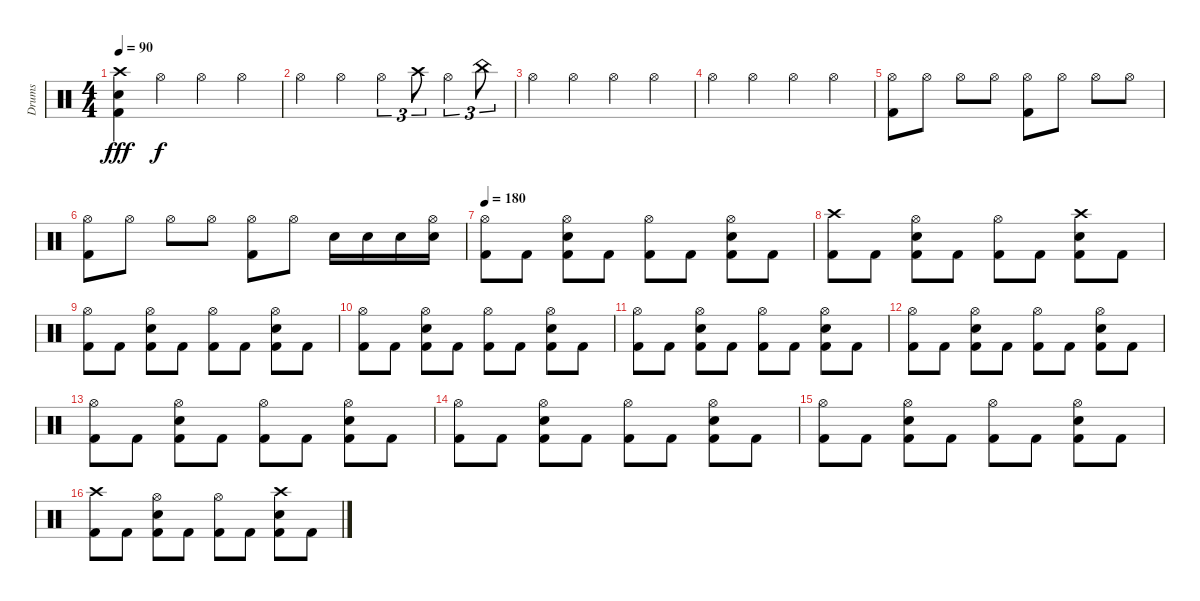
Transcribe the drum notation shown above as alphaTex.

\track ("Drums" "Drums") {instrument percussion}
\staff {score}
\articulation defaults
\ts (4 4)
\tempo 90
\clef neutral
\ks c
("Crash high (hit)" "Snare (hit) 2" "Kick (hit) 2").4{dy fff} "Hi-Hat (open)".4{dy f} "Hi-Hat (open)".4 "Hi-Hat (open)".4 |
"Hi-Hat (open)".4 "Hi-Hat (open)".4 "Hi-Hat (open)".4{tu (3 2)} "Crash high (hit)".8{tu (3 2)} "Hi-Hat (open)".4{tu (3 2)} "China (hit)".8{tu (3 2)} |
"Hi-Hat (open)".4 "Hi-Hat (open)".4 "Hi-Hat (open)".4 "Hi-Hat (open)".4 |
"Hi-Hat (open)".4 "Hi-Hat (open)".4 "Hi-Hat (open)".4 "Hi-Hat (open)".4 |
("Hi-Hat (open)" "Kick (hit) 2").8 "Hi-Hat (open)".8 "Hi-Hat (open)".8 "Hi-Hat (open)".8 ("Hi-Hat (open)" "Kick (hit) 2").8 "Hi-Hat (open)".8 "Hi-Hat (open)".8 "Hi-Hat (open)".8 |
("Hi-Hat (open)" "Kick (hit) 2").8 "Hi-Hat (open)".8 "Hi-Hat (open)".8 "Hi-Hat (open)".8 ("Hi-Hat (open)" "Kick (hit) 2").8 "Hi-Hat (open)".8 "Snare (hit) 2".16 "Snare (hit) 2".16 "Snare (hit) 2".16 ("Hi-Hat (open)" "Snare (hit) 2").16 |
\tempo 180
("Hi-Hat (open)" "Kick (hit) 2").8 "Kick (hit) 2".8 ("Hi-Hat (open)" "Snare (hit) 2" "Kick (hit) 2").8 "Kick (hit) 2".8 ("Hi-Hat (open)" "Kick (hit) 2").8 "Kick (hit) 2".8 ("Hi-Hat (open)" "Snare (hit) 2" "Kick (hit) 2").8 "Kick (hit) 2".8 |
("Crash high (hit)" "Kick (hit) 2").8 "Kick (hit) 2".8 ("Hi-Hat (open)" "Snare (hit) 2" "Kick (hit) 2").8 "Kick (hit) 2".8 ("Hi-Hat (open)" "Kick (hit) 2").8 "Kick (hit) 2".8 ("Crash high (hit)" "Snare (hit) 2" "Kick (hit) 2").8 "Kick (hit) 2".8 |
("Hi-Hat (open)" "Kick (hit) 2").8 "Kick (hit) 2".8 ("Hi-Hat (open)" "Snare (hit) 2" "Kick (hit) 2").8 "Kick (hit) 2".8 ("Hi-Hat (open)" "Kick (hit) 2").8 "Kick (hit) 2".8 ("Hi-Hat (open)" "Snare (hit) 2" "Kick (hit) 2").8 "Kick (hit) 2".8 |
("Hi-Hat (open)" "Kick (hit) 2").8 "Kick (hit) 2".8 ("Hi-Hat (open)" "Snare (hit) 2" "Kick (hit) 2").8 "Kick (hit) 2".8 ("Hi-Hat (open)" "Kick (hit) 2").8 "Kick (hit) 2".8 ("Hi-Hat (open)" "Snare (hit) 2" "Kick (hit) 2").8 "Kick (hit) 2".8 |
("Hi-Hat (open)" "Kick (hit) 2").8 "Kick (hit) 2".8 ("Hi-Hat (open)" "Snare (hit) 2" "Kick (hit) 2").8 "Kick (hit) 2".8 ("Hi-Hat (open)" "Kick (hit) 2").8 "Kick (hit) 2".8 ("Hi-Hat (open)" "Snare (hit) 2" "Kick (hit) 2").8 "Kick (hit) 2".8 |
("Hi-Hat (open)" "Kick (hit) 2").8 "Kick (hit) 2".8 ("Hi-Hat (open)" "Snare (hit) 2" "Kick (hit) 2").8 "Kick (hit) 2".8 ("Hi-Hat (open)" "Kick (hit) 2").8 "Kick (hit) 2".8 ("Hi-Hat (open)" "Snare (hit) 2" "Kick (hit) 2").8 "Kick (hit) 2".8 |
("Hi-Hat (open)" "Kick (hit) 2").8 "Kick (hit) 2".8 ("Hi-Hat (open)" "Snare (hit) 2" "Kick (hit) 2").8 "Kick (hit) 2".8 ("Hi-Hat (open)" "Kick (hit) 2").8 "Kick (hit) 2".8 ("Hi-Hat (open)" "Snare (hit) 2" "Kick (hit) 2").8 "Kick (hit) 2".8 |
("Hi-Hat (open)" "Kick (hit) 2").8 "Kick (hit) 2".8 ("Hi-Hat (open)" "Snare (hit) 2" "Kick (hit) 2").8 "Kick (hit) 2".8 ("Hi-Hat (open)" "Kick (hit) 2").8 "Kick (hit) 2".8 ("Hi-Hat (open)" "Snare (hit) 2" "Kick (hit) 2").8 "Kick (hit) 2".8 |
("Hi-Hat (open)" "Kick (hit) 2").8 "Kick (hit) 2".8 ("Hi-Hat (open)" "Snare (hit) 2" "Kick (hit) 2").8 "Kick (hit) 2".8 ("Hi-Hat (open)" "Kick (hit) 2").8 "Kick (hit) 2".8 ("Hi-Hat (open)" "Snare (hit) 2" "Kick (hit) 2").8 "Kick (hit) 2".8 |
("Crash high (hit)" "Kick (hit) 2").8 "Kick (hit) 2".8 ("Hi-Hat (open)" "Snare (hit) 2" "Kick (hit) 2").8 "Kick (hit) 2".8 ("Hi-Hat (open)" "Kick (hit) 2").8 "Kick (hit) 2".8 ("Crash high (hit)" "Snare (hit) 2" "Kick (hit) 2").8 "Kick (hit) 2".8
